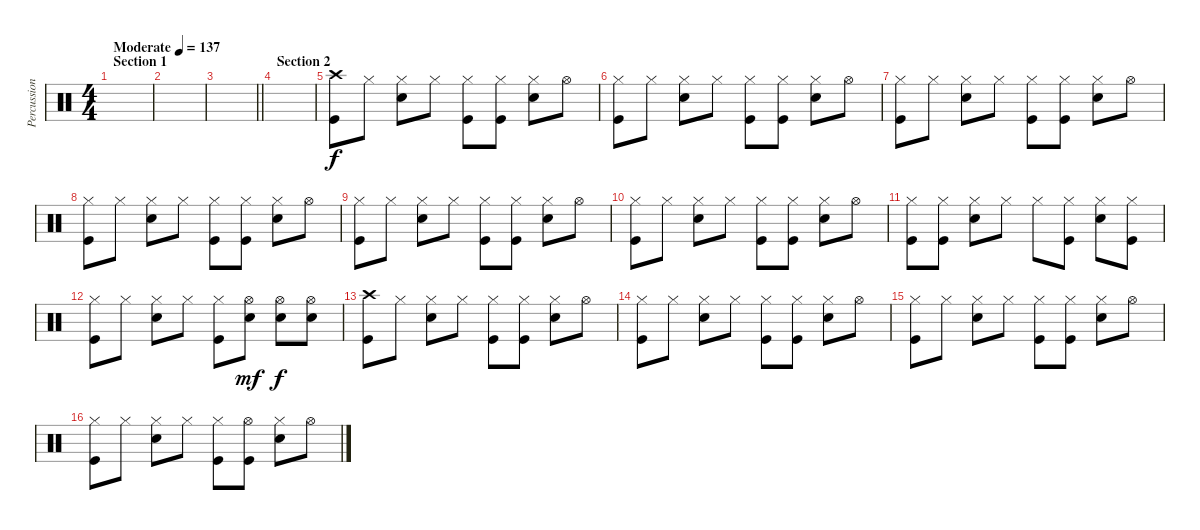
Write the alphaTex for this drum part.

\track ("Percussion" "Percussion") {instrument percussion}
\staff {score}
\articulation defaults
\ts (4 4)
\section ("" "Section 1")
\tempo (137 "Moderate")
\clef neutral
\ks c
|
|
\barLineRight lightlight
|
\section ("" "Section 2")
|
("Crash high (hit)" "Kick (hit)").8 "Hi-Hat (closed)".8 ("Hi-Hat (closed)" "Snare (hit) 2").8 "Hi-Hat (closed)".8 ("Hi-Hat (closed)" "Kick (hit)").8 ("Hi-Hat (closed)" "Kick (hit)").8 ("Hi-Hat (closed)" "Snare (hit) 2").8 "Hi-Hat (open)".8 |
("Hi-Hat (closed)" "Kick (hit)").8 "Hi-Hat (closed)".8 ("Hi-Hat (closed)" "Snare (hit) 2").8 "Hi-Hat (closed)".8 ("Hi-Hat (closed)" "Kick (hit)").8 ("Hi-Hat (closed)" "Kick (hit)").8 ("Hi-Hat (closed)" "Snare (hit) 2").8 "Hi-Hat (open)".8 |
("Hi-Hat (closed)" "Kick (hit)").8 "Hi-Hat (closed)".8 ("Hi-Hat (closed)" "Snare (hit) 2").8 "Hi-Hat (closed)".8 ("Hi-Hat (closed)" "Kick (hit)").8 ("Hi-Hat (closed)" "Kick (hit)").8 ("Hi-Hat (closed)" "Snare (hit) 2").8 "Hi-Hat (open)".8 |
("Hi-Hat (closed)" "Kick (hit)").8 "Hi-Hat (closed)".8 ("Hi-Hat (closed)" "Snare (hit) 2").8 "Hi-Hat (closed)".8 ("Hi-Hat (closed)" "Kick (hit)").8 ("Hi-Hat (closed)" "Kick (hit)").8 ("Hi-Hat (closed)" "Snare (hit) 2").8 "Hi-Hat (open)".8 |
("Hi-Hat (closed)" "Kick (hit)").8 "Hi-Hat (closed)".8 ("Hi-Hat (closed)" "Snare (hit) 2").8 "Hi-Hat (closed)".8 ("Hi-Hat (closed)" "Kick (hit)").8 ("Hi-Hat (closed)" "Kick (hit)").8 ("Hi-Hat (closed)" "Snare (hit) 2").8 "Hi-Hat (open)".8 |
("Hi-Hat (closed)" "Kick (hit)").8 "Hi-Hat (closed)".8 ("Hi-Hat (closed)" "Snare (hit) 2").8 "Hi-Hat (closed)".8 ("Hi-Hat (closed)" "Kick (hit)").8 ("Hi-Hat (closed)" "Kick (hit)").8 ("Hi-Hat (closed)" "Snare (hit) 2").8 "Hi-Hat (open)".8 |
("Hi-Hat (closed)" "Kick (hit)").8 ("Hi-Hat (closed)" "Kick (hit)").8 ("Hi-Hat (closed)" "Snare (hit) 2").8 "Hi-Hat (closed)".8 "Hi-Hat (closed)".8 ("Hi-Hat (closed)" "Kick (hit)").8 ("Hi-Hat (closed)" "Snare (hit) 2").8 ("Hi-Hat (closed)" "Kick (hit)").8 |
("Hi-Hat (closed)" "Kick (hit)").8 "Hi-Hat (closed)".8 ("Hi-Hat (closed)" "Snare (hit) 2").8 "Hi-Hat (closed)".8 ("Hi-Hat (closed)" "Kick (hit)").8 ("Hi-Hat (open)" "Snare (hit) 2").8{dy mf} ("Hi-Hat (open)" "Snare (hit) 2").8{dy f} ("Hi-Hat (open)" "Snare (hit) 2").8 |
("Crash high (hit)" "Kick (hit)").8 "Hi-Hat (closed)".8 ("Hi-Hat (closed)" "Snare (hit) 2").8 "Hi-Hat (closed)".8 ("Hi-Hat (closed)" "Kick (hit)").8 ("Hi-Hat (closed)" "Kick (hit)").8 ("Hi-Hat (closed)" "Snare (hit) 2").8 "Hi-Hat (open)".8 |
("Hi-Hat (closed)" "Kick (hit)").8 "Hi-Hat (closed)".8 ("Hi-Hat (closed)" "Snare (hit) 2").8 "Hi-Hat (closed)".8 ("Hi-Hat (closed)" "Kick (hit)").8 ("Hi-Hat (closed)" "Kick (hit)").8 ("Hi-Hat (closed)" "Snare (hit) 2").8 "Hi-Hat (open)".8 |
("Hi-Hat (closed)" "Kick (hit)").8 "Hi-Hat (closed)".8 ("Hi-Hat (closed)" "Snare (hit) 2").8 "Hi-Hat (closed)".8 ("Hi-Hat (closed)" "Kick (hit)").8 ("Hi-Hat (closed)" "Kick (hit)").8 ("Hi-Hat (closed)" "Snare (hit) 2").8 "Hi-Hat (open)".8 |
("Hi-Hat (closed)" "Kick (hit)").8 "Hi-Hat (closed)".8 ("Hi-Hat (closed)" "Snare (hit) 2").8 "Hi-Hat (closed)".8 ("Hi-Hat (closed)" "Kick (hit)").8 ("Hi-Hat (open)" "Kick (hit)").8 ("Hi-Hat (closed)" "Snare (hit) 2").8 "Hi-Hat (open)".8
